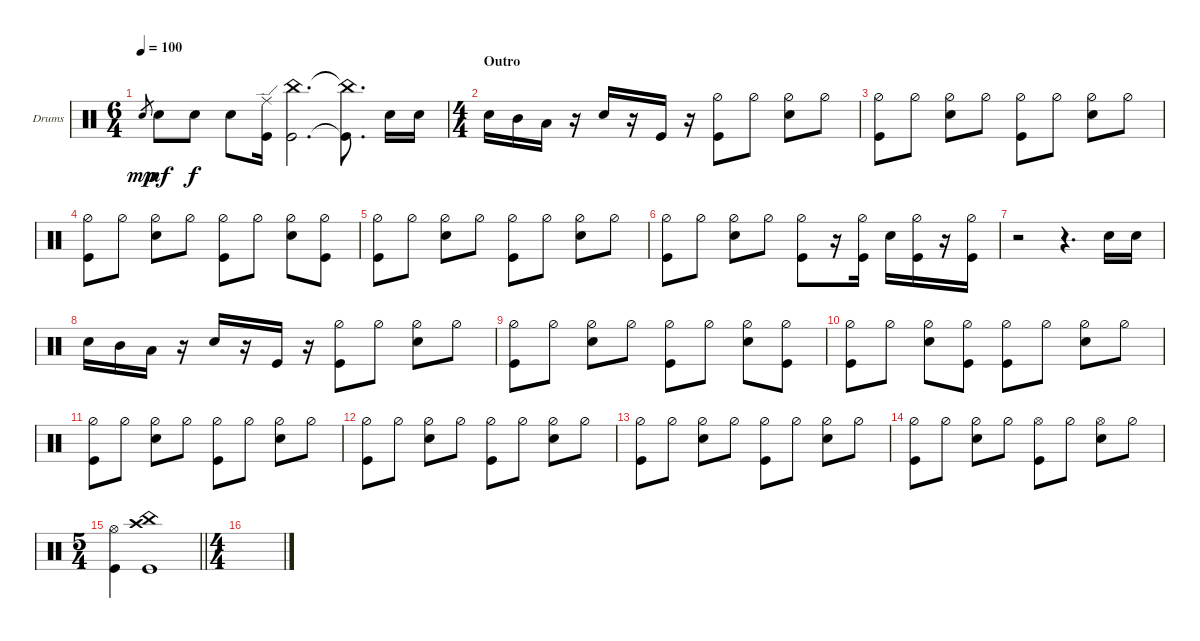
\defaultSystemsLayout 4
\bracketExtendMode groupsimilarinstruments
\firstSystemTrackNameOrientation horizontal
\otherSystemsTrackNameOrientation horizontal
\track ("Drumkit" "Drums") {instrument percussion}
\staff {score}
\articulation defaults
\ts (6 4)
\tempo 100
\clef neutral
\ks c "Snare (hit) 2".8{gr dy mp} "Snare (hit) 2".8{dy mf} "Snare (hit) 2".8{dy f} "Snare (hit) 2".8
("Kick (hit)" "Ride (edge)").16 ("Kick (hit)" "China (hit)").2{d} ("Kick (hit)"{t} "China (hit)"{t}).8{d} "Snare (hit) 2".16 "Snare (hit) 2".16 |
\ts (4 4)
\section ("" "Outro")
"Snare (hit) 2".16 "Mid Tom (hit)".16 "Low Tom (hit)".16 r.16 "Snare (hit) 2".16 r.16 "Kick (hit)".16 r.16 ("Hi-Hat (half)" "Kick (hit)").8 "Hi-Hat (half)".8 ("Hi-Hat (half)" "Snare (hit) 2").8 "Hi-Hat (half)".8 |
("Hi-Hat (half)" "Kick (hit)").8 "Hi-Hat (half)".8 ("Hi-Hat (half)" "Snare (hit) 2").8 "Hi-Hat (half)".8 ("Hi-Hat (half)" "Kick (hit)").8 "Hi-Hat (half)".8 ("Hi-Hat (half)" "Snare (hit) 2").8 "Hi-Hat (half)".8 |
("Hi-Hat (half)" "Kick (hit)").8 "Hi-Hat (half)".8 ("Hi-Hat (half)" "Snare (hit) 2").8 "Hi-Hat (half)".8 ("Hi-Hat (half)" "Kick (hit)").8 "Hi-Hat (half)".8 ("Hi-Hat (half)" "Snare (hit) 2").8 ("Hi-Hat (half)" "Kick (hit)").8 |
("Hi-Hat (half)" "Kick (hit)").8 "Hi-Hat (half)".8 ("Hi-Hat (half)" "Snare (hit) 2").8 "Hi-Hat (half)".8 ("Hi-Hat (half)" "Kick (hit)").8 "Hi-Hat (half)".8 ("Hi-Hat (half)" "Snare (hit) 2").8 "Hi-Hat (half)".8 |
("Hi-Hat (half)" "Kick (hit)").8 "Hi-Hat (half)".8 ("Hi-Hat (half)" "Snare (hit) 2").8 "Hi-Hat (half)".8 ("Hi-Hat (half)" "Kick (hit)").8 r.16 ("Kick (hit)" "Hi-Hat (half)").16 "Snare (hit) 2".16 ("Kick (hit)" "Hi-Hat (half)").16 r.16 ("Kick (hit)" "Hi-Hat (half)").16 |
r.2 r.4{d} "Snare (hit) 2".16 "Snare (hit) 2".16 |
"Snare (hit) 2".16 "Mid Tom (hit)".16 "Low Tom (hit)".16 r.16 "Snare (hit) 2".16 r.16 "Kick (hit)".16 r.16 ("Hi-Hat (half)" "Kick (hit)").8 "Hi-Hat (half)".8 ("Hi-Hat (half)" "Snare (hit) 2").8 "Hi-Hat (half)".8 |
("Hi-Hat (half)" "Kick (hit)").8 "Hi-Hat (half)".8 ("Hi-Hat (half)" "Snare (hit) 2").8 "Hi-Hat (half)".8 ("Hi-Hat (half)" "Kick (hit)").8 "Hi-Hat (half)".8 ("Hi-Hat (half)" "Snare (hit) 2").8 ("Hi-Hat (half)" "Kick (hit)").8 |
("Hi-Hat (half)" "Kick (hit)").8 "Hi-Hat (half)".8 ("Hi-Hat (half)" "Snare (hit) 2").8 ("Hi-Hat (half)" "Kick (hit)").8 ("Hi-Hat (half)" "Kick (hit)").8 "Hi-Hat (half)".8 ("Hi-Hat (half)" "Snare (hit) 2").8 "Hi-Hat (half)".8 |
("Hi-Hat (half)" "Kick (hit)").8 "Hi-Hat (half)".8 ("Hi-Hat (half)" "Snare (hit) 2").8 "Hi-Hat (half)".8 ("Hi-Hat (half)" "Kick (hit)").8 "Hi-Hat (half)".8 ("Hi-Hat (half)" "Snare (hit) 2").8 "Hi-Hat (half)".8 |
("Hi-Hat (half)" "Kick (hit)").8 "Hi-Hat (half)".8 ("Hi-Hat (half)" "Snare (hit) 2").8 "Hi-Hat (half)".8 ("Hi-Hat (half)" "Kick (hit)").8 "Hi-Hat (half)".8 ("Hi-Hat (half)" "Snare (hit) 2").8 "Hi-Hat (half)".8 |
("Hi-Hat (half)" "Kick (hit)").8 "Hi-Hat (half)".8 ("Hi-Hat (half)" "Snare (hit) 2").8 "Hi-Hat (half)".8 ("Hi-Hat (half)" "Kick (hit)").8 "Hi-Hat (half)".8 ("Hi-Hat (half)" "Snare (hit) 2").8 "Hi-Hat (half)".8 |
("Hi-Hat (half)" "Kick (hit)").8 "Hi-Hat (half)".8 ("Hi-Hat (half)" "Snare (hit) 2").8 "Hi-Hat (half)".8 ("Hi-Hat (open)" "Kick (hit)").8 "Hi-Hat (half)".8 ("Hi-Hat (open)" "Snare (hit) 2").8 "Hi-Hat (half)".8 |
\ts (5 4)
\barLineRight lightlight
("Hi-Hat (open)" "Kick (hit)").4 ("Crash high (hit)" "Kick (hit)" "China (hit)").1 |
\ts (4 4)
